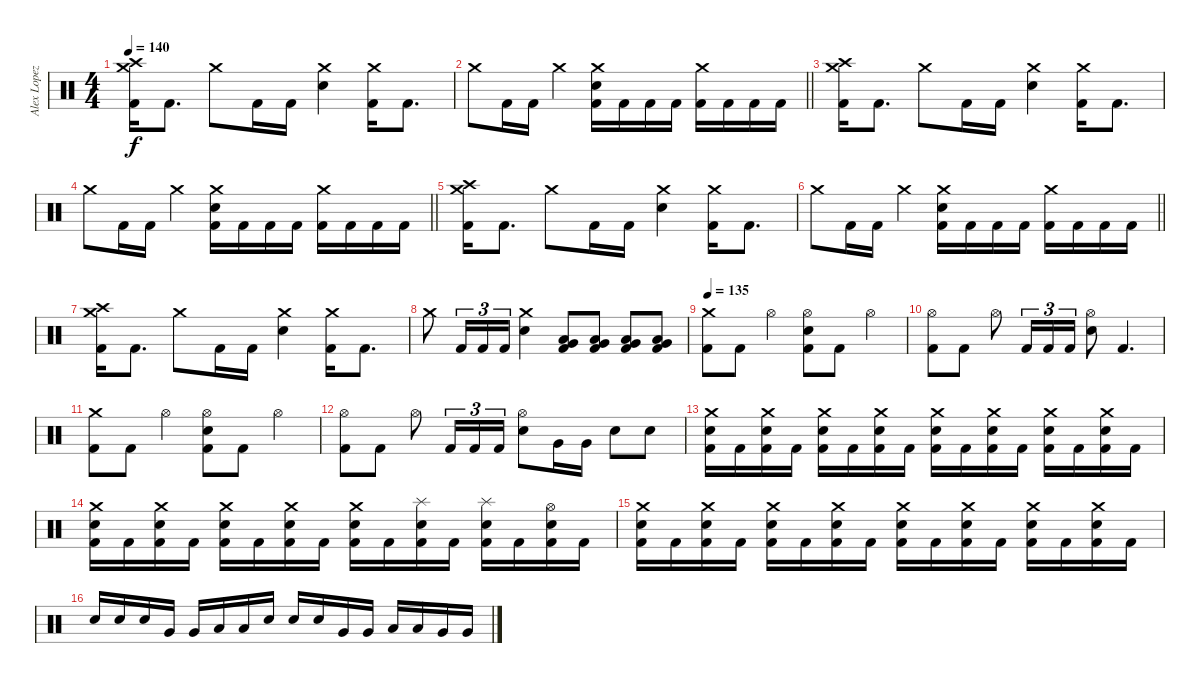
\track ("Alex Lopez" "Alex Lopez") {instrument percussion}
\staff {score}
\articulation defaults
\ts (4 4)
\tempo 140
\clef neutral
\ks c
("Crash medium (hit)" "Crash high (hit)" "Kick (hit) 2").16{dy f} "Kick (hit) 2".8{d} "Crash medium (hit)".8 "Kick (hit) 2".16 "Kick (hit) 2".16 ("Crash medium (hit)" "Electric Snare (hit)").4 ("Crash medium (hit)" "Kick (hit) 2").16 "Kick (hit) 2".8{d} |
\barLineRight lightlight "Crash medium (hit)".8 "Kick (hit) 2".16 "Kick (hit) 2".16 "Crash medium (hit)".4
("Crash medium (hit)" "Electric Snare (hit)" "Kick (hit) 2").16 "Kick (hit) 2".16 "Kick (hit) 2".16 "Kick (hit) 2".16 ("Crash medium (hit)" "Kick (hit) 2").16 "Kick (hit) 2".16 "Kick (hit) 2".16 "Kick (hit) 2".16 |
("Crash medium (hit)" "Crash high (hit)" "Kick (hit) 2").16 "Kick (hit) 2".8{d} "Crash medium (hit)".8 "Kick (hit) 2".16 "Kick (hit) 2".16 ("Crash medium (hit)" "Electric Snare (hit)").4 ("Crash medium (hit)" "Kick (hit) 2").16 "Kick (hit) 2".8{d} |
\barLineRight lightlight "Crash medium (hit)".8 "Kick (hit) 2".16 "Kick (hit) 2".16 "Crash medium (hit)".4
("Crash medium (hit)" "Electric Snare (hit)" "Kick (hit) 2").16 "Kick (hit) 2".16 "Kick (hit) 2".16 "Kick (hit) 2".16 ("Crash medium (hit)" "Kick (hit) 2").16 "Kick (hit) 2".16 "Kick (hit) 2".16 "Kick (hit) 2".16 |
("Crash medium (hit)" "Crash high (hit)" "Kick (hit) 2").16 "Kick (hit) 2".8{d} "Crash medium (hit)".8 "Kick (hit) 2".16 "Kick (hit) 2".16 ("Crash medium (hit)" "Electric Snare (hit)").4 ("Crash medium (hit)" "Kick (hit) 2").16 "Kick (hit) 2".8{d} |
\barLineRight lightlight "Crash medium (hit)".8 "Kick (hit) 2".16 "Kick (hit) 2".16 "Crash medium (hit)".4
("Crash medium (hit)" "Electric Snare (hit)" "Kick (hit) 2").16 "Kick (hit) 2".16 "Kick (hit) 2".16 "Kick (hit) 2".16 ("Crash medium (hit)" "Kick (hit) 2").16 "Kick (hit) 2".16 "Kick (hit) 2".16 "Kick (hit) 2".16 |
("Crash medium (hit)" "Crash high (hit)" "Kick (hit) 2").16 "Kick (hit) 2".8{d} "Crash medium (hit)".8 "Kick (hit) 2".16 "Kick (hit) 2".16 ("Crash medium (hit)" "Electric Snare (hit)").4 ("Crash medium (hit)" "Kick (hit) 2").16 "Kick (hit) 2".8{d} |
"Crash medium (hit)".8 "Kick (hit) 2".16{tu (3 2)} "Kick (hit) 2".16{tu (3 2)} "Kick (hit) 2".16{tu (3 2)} ("Crash medium (hit)" "Electric Snare (hit)").4 ("Low Floor Tom (hit)" "Very Low Tom (hit)" "Kick (hit) 2").8 ("Low Floor Tom (hit)" "Very Low Tom (hit)" "Kick (hit) 2").8 ("Low Floor Tom (hit)" "Very Low Tom (hit)" "Kick (hit) 2").8 ("Low Floor Tom (hit)" "Very Low Tom (hit)" "Kick (hit) 2").8 |
\tempo 135
("Crash medium (hit)" "Kick (hit) 2").8 "Kick (hit) 2".8 "Hi-Hat (open)".4 ("Hi-Hat (open)" "Electric Snare (hit)" "Kick (hit) 2").8 "Kick (hit) 2".8 "Hi-Hat (open)".4 |
("Hi-Hat (open)" "Kick (hit) 2").8 "Kick (hit) 2".8 "Hi-Hat (open)".8 "Kick (hit) 2".16{tu (3 2)} "Kick (hit) 2".16{tu (3 2)} "Kick (hit) 2".16{tu (3 2)} ("Hi-Hat (open)" "Electric Snare (hit)").8 "Kick (hit) 2".4{d} |
("Crash medium (hit)" "Kick (hit) 2").8 "Kick (hit) 2".8 "Hi-Hat (open)".4 ("Hi-Hat (open)" "Electric Snare (hit)" "Kick (hit) 2").8 "Kick (hit) 2".8 "Hi-Hat (open)".4 |
("Hi-Hat (open)" "Kick (hit) 2").8 "Kick (hit) 2".8 "Hi-Hat (open)".8 "Kick (hit) 2".16{tu (3 2)} "Kick (hit) 2".16{tu (3 2)} "Kick (hit) 2".16{tu (3 2)} ("Hi-Hat (open)" "Electric Snare (hit)").8 "Very Low Tom (hit)".16 "Very Low Tom (hit)".16 "Electric Snare (hit)".8 "Electric Snare (hit)".8 |
("Crash medium (hit)" "Electric Snare (hit)" "Kick (hit) 2").16 "Kick (hit) 2".16 ("Crash medium (hit)" "Electric Snare (hit)" "Kick (hit) 2").16 "Kick (hit) 2".16 ("Crash medium (hit)" "Electric Snare (hit)" "Kick (hit) 2").16 "Kick (hit) 2".16 ("Crash medium (hit)" "Electric Snare (hit)" "Kick (hit) 2").16 "Kick (hit) 2".16 ("Crash medium (hit)" "Electric Snare (hit)" "Kick (hit) 2").16 "Kick (hit) 2".16 ("Crash medium (hit)" "Electric Snare (hit)" "Kick (hit) 2").16 "Kick (hit) 2".16 ("Crash medium (hit)" "Electric Snare (hit)" "Kick (hit) 2").16 "Kick (hit) 2".16 ("Crash medium (hit)" "Electric Snare (hit)" "Kick (hit) 2").16 "Kick (hit) 2".16 |
("Crash medium (hit)" "Electric Snare (hit)" "Kick (hit) 2").16 "Kick (hit) 2".16 ("Crash medium (hit)" "Electric Snare (hit)" "Kick (hit) 2").16 "Kick (hit) 2".16 ("Crash medium (hit)" "Electric Snare (hit)" "Kick (hit) 2").16 "Kick (hit) 2".16 ("Crash medium (hit)" "Electric Snare (hit)" "Kick (hit) 2").16 "Kick (hit) 2".16 ("Crash medium (hit)" "Electric Snare (hit)" "Kick (hit) 2").16 "Kick (hit) 2".16 ("Splash (hit)" "Electric Snare (hit)" "Kick (hit) 2").16 "Kick (hit) 2".16 ("Splash (hit)" "Electric Snare (hit)" "Kick (hit) 2").16 "Kick (hit) 2".16 ("Hi-Hat (open)" "Electric Snare (hit)" "Kick (hit) 2").16 "Kick (hit) 2".16 |
("Crash medium (hit)" "Electric Snare (hit)" "Kick (hit) 2").16 "Kick (hit) 2".16 ("Crash medium (hit)" "Electric Snare (hit)" "Kick (hit) 2").16 "Kick (hit) 2".16 ("Crash medium (hit)" "Electric Snare (hit)" "Kick (hit) 2").16 "Kick (hit) 2".16 ("Crash medium (hit)" "Electric Snare (hit)" "Kick (hit) 2").16 "Kick (hit) 2".16 ("Crash medium (hit)" "Electric Snare (hit)" "Kick (hit) 2").16 "Kick (hit) 2".16 ("Crash medium (hit)" "Electric Snare (hit)" "Kick (hit) 2").16 "Kick (hit) 2".16 ("Crash medium (hit)" "Electric Snare (hit)" "Kick (hit) 2").16 "Kick (hit) 2".16 ("Crash medium (hit)" "Electric Snare (hit)" "Kick (hit) 2").16 "Kick (hit) 2".16 |
"Electric Snare (hit)".16 "Electric Snare (hit)".16 "Electric Snare (hit)".16 "Very Low Tom (hit)".16 "Very Low Tom (hit)".16 "Low Tom (hit)".16 "Low Tom (hit)".16 "Electric Snare (hit)".16 "Electric Snare (hit)".16 "Electric Snare (hit)".16 "Very Low Tom (hit)".16 "Very Low Tom (hit)".16 "Low Tom (hit)".16 "Low Tom (hit)".16 "Very Low Tom (hit)".16 "Very Low Tom (hit)".16
